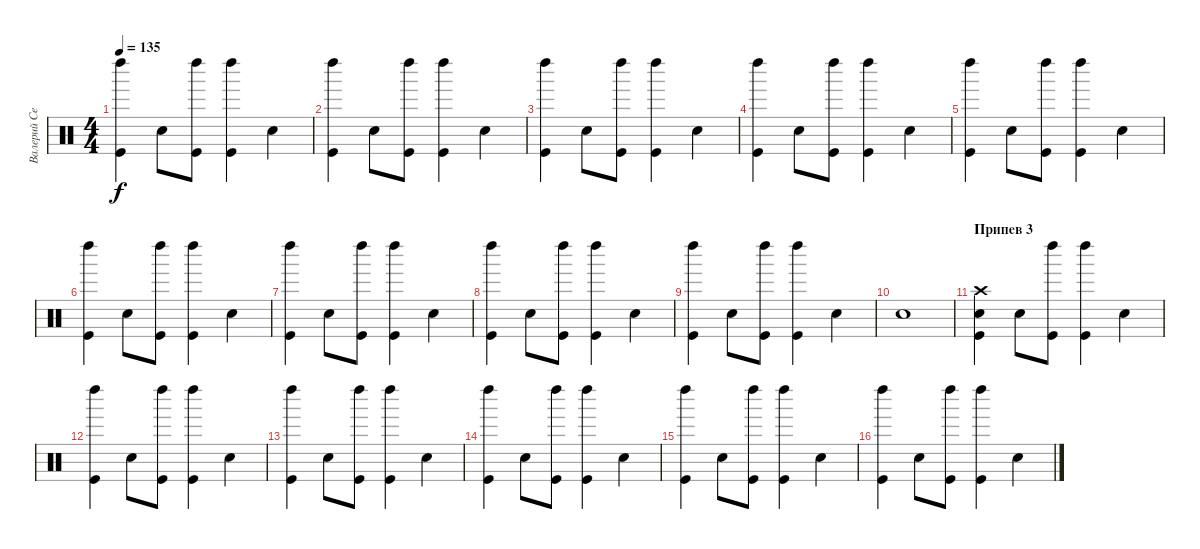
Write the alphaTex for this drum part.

\track ("Валерий Северин" "Валерий Се") {instrument percussion}
\staff {score}
\articulation defaults
\ts (4 4)
\tempo 135
\clef neutral
\ks c
("Kick (hit)" "Left Maraca (hit)").4{dy f} "Snare (hit) 2".8 ("Kick (hit)" "Left Maraca (hit)").8 ("Kick (hit)" "Left Maraca (hit)").4 "Snare (hit) 2".4 |
("Kick (hit)" "Left Maraca (hit)").4 "Snare (hit) 2".8 ("Kick (hit)" "Left Maraca (hit)").8 ("Kick (hit)" "Left Maraca (hit)").4 "Snare (hit) 2".4 |
("Kick (hit)" "Left Maraca (hit)").4 "Snare (hit) 2".8 ("Kick (hit)" "Left Maraca (hit)").8 ("Kick (hit)" "Left Maraca (hit)").4 "Snare (hit) 2".4 |
("Kick (hit)" "Left Maraca (hit)").4 "Snare (hit) 2".8 ("Kick (hit)" "Left Maraca (hit)").8 ("Kick (hit)" "Left Maraca (hit)").4 "Snare (hit) 2".4 |
("Kick (hit)" "Left Maraca (hit)").4 "Snare (hit) 2".8 ("Kick (hit)" "Left Maraca (hit)").8 ("Kick (hit)" "Left Maraca (hit)").4 "Snare (hit) 2".4 |
("Kick (hit)" "Left Maraca (hit)").4 "Snare (hit) 2".8 ("Kick (hit)" "Left Maraca (hit)").8 ("Kick (hit)" "Left Maraca (hit)").4 "Snare (hit) 2".4 |
("Kick (hit)" "Left Maraca (hit)").4 "Snare (hit) 2".8 ("Kick (hit)" "Left Maraca (hit)").8 ("Kick (hit)" "Left Maraca (hit)").4 "Snare (hit) 2".4 |
("Kick (hit)" "Left Maraca (hit)").4 "Snare (hit) 2".8 ("Kick (hit)" "Left Maraca (hit)").8 ("Kick (hit)" "Left Maraca (hit)").4 "Snare (hit) 2".4 |
("Kick (hit)" "Left Maraca (hit)").4 "Snare (hit) 2".8 ("Kick (hit)" "Left Maraca (hit)").8 ("Kick (hit)" "Left Maraca (hit)").4 "Snare (hit) 2".4 |
"Snare (hit) 2".1 |
\section ("" "Припев 3")
("Crash high (hit)" "Kick (hit)" "Snare (hit) 2").4 "Snare (hit) 2".8 ("Kick (hit)" "Left Maraca (hit)").8 ("Kick (hit)" "Left Maraca (hit)").4 "Snare (hit) 2".4 |
("Kick (hit)" "Left Maraca (hit)").4 "Snare (hit) 2".8 ("Kick (hit)" "Left Maraca (hit)").8 ("Kick (hit)" "Left Maraca (hit)").4 "Snare (hit) 2".4 |
("Kick (hit)" "Left Maraca (hit)").4 "Snare (hit) 2".8 ("Kick (hit)" "Left Maraca (hit)").8 ("Kick (hit)" "Left Maraca (hit)").4 "Snare (hit) 2".4 |
("Kick (hit)" "Left Maraca (hit)").4 "Snare (hit) 2".8 ("Kick (hit)" "Left Maraca (hit)").8 ("Kick (hit)" "Left Maraca (hit)").4 "Snare (hit) 2".4 |
("Kick (hit)" "Left Maraca (hit)").4 "Snare (hit) 2".8 ("Kick (hit)" "Left Maraca (hit)").8 ("Kick (hit)" "Left Maraca (hit)").4 "Snare (hit) 2".4 |
("Kick (hit)" "Left Maraca (hit)").4 "Snare (hit) 2".8 ("Kick (hit)" "Left Maraca (hit)").8 ("Kick (hit)" "Left Maraca (hit)").4 "Snare (hit) 2".4
